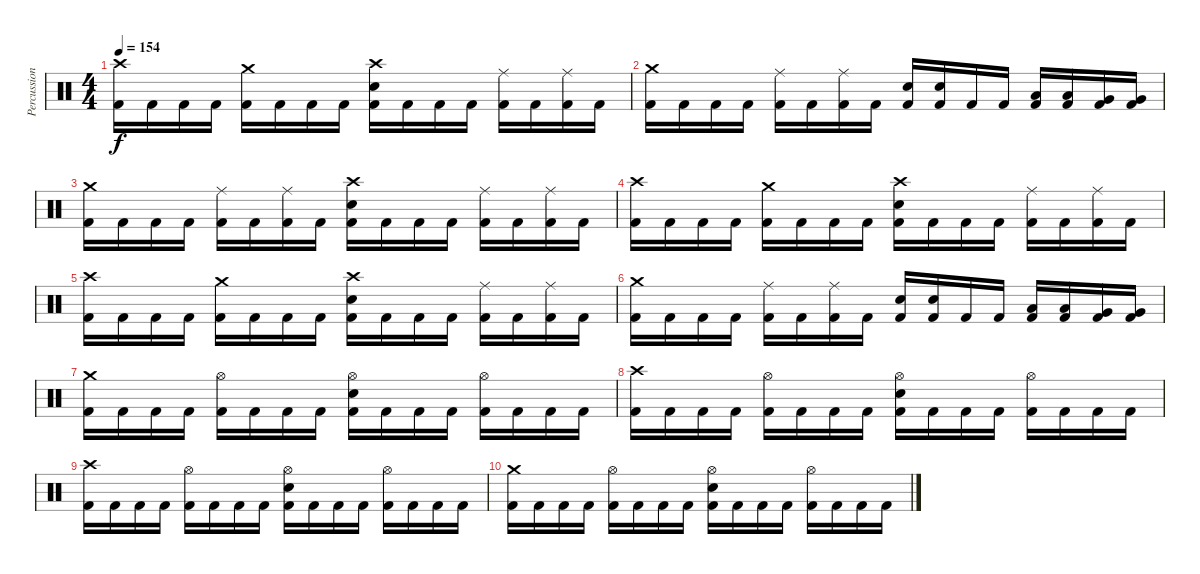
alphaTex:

\track ("Percussion" "Percussion") {instrument percussion}
\staff {score}
\articulation defaults
\ts (4 4)
\tempo 154
\clef neutral
\ks c
("Crash high (hit)" "Kick (hit) 2").16{dy f} "Kick (hit) 2".16 "Kick (hit) 2".16 "Kick (hit) 2".16 ("Crash medium (hit)" "Kick (hit) 2").16 "Kick (hit) 2".16 "Kick (hit) 2".16 "Kick (hit) 2".16 ("Crash high (hit)" "Electric Snare (hit)" "Kick (hit) 2").16 "Kick (hit) 2".16 "Kick (hit) 2".16 "Kick (hit) 2".16 ("Ride (middle)" "Kick (hit) 2").16 "Kick (hit) 2".16 ("Ride (middle)" "Kick (hit) 2").16 "Kick (hit) 2".16 |
("Crash medium (hit)" "Kick (hit) 2").16 "Kick (hit) 2".16 "Kick (hit) 2".16 "Kick (hit) 2".16 ("Ride (middle)" "Kick (hit) 2").16 "Kick (hit) 2".16 ("Ride (middle)" "Kick (hit) 2").16 "Kick (hit) 2".16 ("Electric Snare (hit)" "Kick (hit) 2").16 ("Electric Snare (hit)" "Kick (hit) 2").16 "Kick (hit) 2".16 "Kick (hit) 2".16 ("Low Tom (hit)" "Kick (hit) 2").16 ("Low Tom (hit)" "Kick (hit) 2").16 ("Very Low Tom (hit)" "Kick (hit) 2").16 ("Very Low Tom (hit)" "Kick (hit) 2").16 |
("Crash medium (hit)" "Kick (hit) 2").16 "Kick (hit) 2".16 "Kick (hit) 2".16 "Kick (hit) 2".16 ("Ride (middle)" "Kick (hit) 2").16 "Kick (hit) 2".16 ("Ride (middle)" "Kick (hit) 2").16 "Kick (hit) 2".16 ("Crash high (hit)" "Electric Snare (hit)" "Kick (hit) 2").16 "Kick (hit) 2".16 "Kick (hit) 2".16 "Kick (hit) 2".16 ("Ride (middle)" "Kick (hit) 2").16 "Kick (hit) 2".16 ("Ride (middle)" "Kick (hit) 2").16 "Kick (hit) 2".16 |
("Crash high (hit)" "Kick (hit) 2").16 "Kick (hit) 2".16 "Kick (hit) 2".16 "Kick (hit) 2".16 ("Crash medium (hit)" "Kick (hit) 2").16 "Kick (hit) 2".16 "Kick (hit) 2".16 "Kick (hit) 2".16 ("Crash high (hit)" "Electric Snare (hit)" "Kick (hit) 2").16 "Kick (hit) 2".16 "Kick (hit) 2".16 "Kick (hit) 2".16 ("Ride (middle)" "Kick (hit) 2").16 "Kick (hit) 2".16 ("Ride (middle)" "Kick (hit) 2").16 "Kick (hit) 2".16 |
("Crash high (hit)" "Kick (hit) 2").16 "Kick (hit) 2".16 "Kick (hit) 2".16 "Kick (hit) 2".16 ("Crash medium (hit)" "Kick (hit) 2").16 "Kick (hit) 2".16 "Kick (hit) 2".16 "Kick (hit) 2".16 ("Crash high (hit)" "Electric Snare (hit)" "Kick (hit) 2").16 "Kick (hit) 2".16 "Kick (hit) 2".16 "Kick (hit) 2".16 ("Ride (middle)" "Kick (hit) 2").16 "Kick (hit) 2".16 ("Ride (middle)" "Kick (hit) 2").16 "Kick (hit) 2".16 |
("Crash medium (hit)" "Kick (hit) 2").16 "Kick (hit) 2".16 "Kick (hit) 2".16 "Kick (hit) 2".16 ("Ride (middle)" "Kick (hit) 2").16 "Kick (hit) 2".16 ("Ride (middle)" "Kick (hit) 2").16 "Kick (hit) 2".16 ("Electric Snare (hit)" "Kick (hit) 2").16 ("Electric Snare (hit)" "Kick (hit) 2").16 "Kick (hit) 2".16 "Kick (hit) 2".16 ("Low Tom (hit)" "Kick (hit) 2").16 ("Low Tom (hit)" "Kick (hit) 2").16 ("Very Low Tom (hit)" "Kick (hit) 2").16 ("Very Low Tom (hit)" "Kick (hit) 2").16 |
("Crash medium (hit)" "Kick (hit) 2").16 "Kick (hit) 2".16 "Kick (hit) 2".16 "Kick (hit) 2".16 ("Hi-Hat (open)" "Kick (hit) 2").16 "Kick (hit) 2".16 "Kick (hit) 2".16 "Kick (hit) 2".16 ("Hi-Hat (open)" "Electric Snare (hit)" "Kick (hit) 2").16 "Kick (hit) 2".16 "Kick (hit) 2".16 "Kick (hit) 2".16 ("Hi-Hat (open)" "Kick (hit) 2").16 "Kick (hit) 2".16 "Kick (hit) 2".16 "Kick (hit) 2".16 |
("Crash high (hit)" "Kick (hit) 2").16 "Kick (hit) 2".16 "Kick (hit) 2".16 "Kick (hit) 2".16 ("Hi-Hat (open)" "Kick (hit) 2").16 "Kick (hit) 2".16 "Kick (hit) 2".16 "Kick (hit) 2".16 ("Hi-Hat (open)" "Electric Snare (hit)" "Kick (hit) 2").16 "Kick (hit) 2".16 "Kick (hit) 2".16 "Kick (hit) 2".16 ("Hi-Hat (open)" "Kick (hit) 2").16 "Kick (hit) 2".16 "Kick (hit) 2".16 "Kick (hit) 2".16 |
("Crash high (hit)" "Kick (hit) 2").16 "Kick (hit) 2".16 "Kick (hit) 2".16 "Kick (hit) 2".16 ("Hi-Hat (open)" "Kick (hit) 2").16 "Kick (hit) 2".16 "Kick (hit) 2".16 "Kick (hit) 2".16 ("Hi-Hat (open)" "Electric Snare (hit)" "Kick (hit) 2").16 "Kick (hit) 2".16 "Kick (hit) 2".16 "Kick (hit) 2".16 ("Hi-Hat (open)" "Kick (hit) 2").16 "Kick (hit) 2".16 "Kick (hit) 2".16 "Kick (hit) 2".16 |
("Crash medium (hit)" "Kick (hit) 2").16 "Kick (hit) 2".16 "Kick (hit) 2".16 "Kick (hit) 2".16 ("Hi-Hat (open)" "Kick (hit) 2").16 "Kick (hit) 2".16 "Kick (hit) 2".16 "Kick (hit) 2".16 ("Hi-Hat (open)" "Electric Snare (hit)" "Kick (hit) 2").16 "Kick (hit) 2".16 "Kick (hit) 2".16 "Kick (hit) 2".16 ("Hi-Hat (open)" "Kick (hit) 2").16 "Kick (hit) 2".16 "Kick (hit) 2".16 "Kick (hit) 2".16
